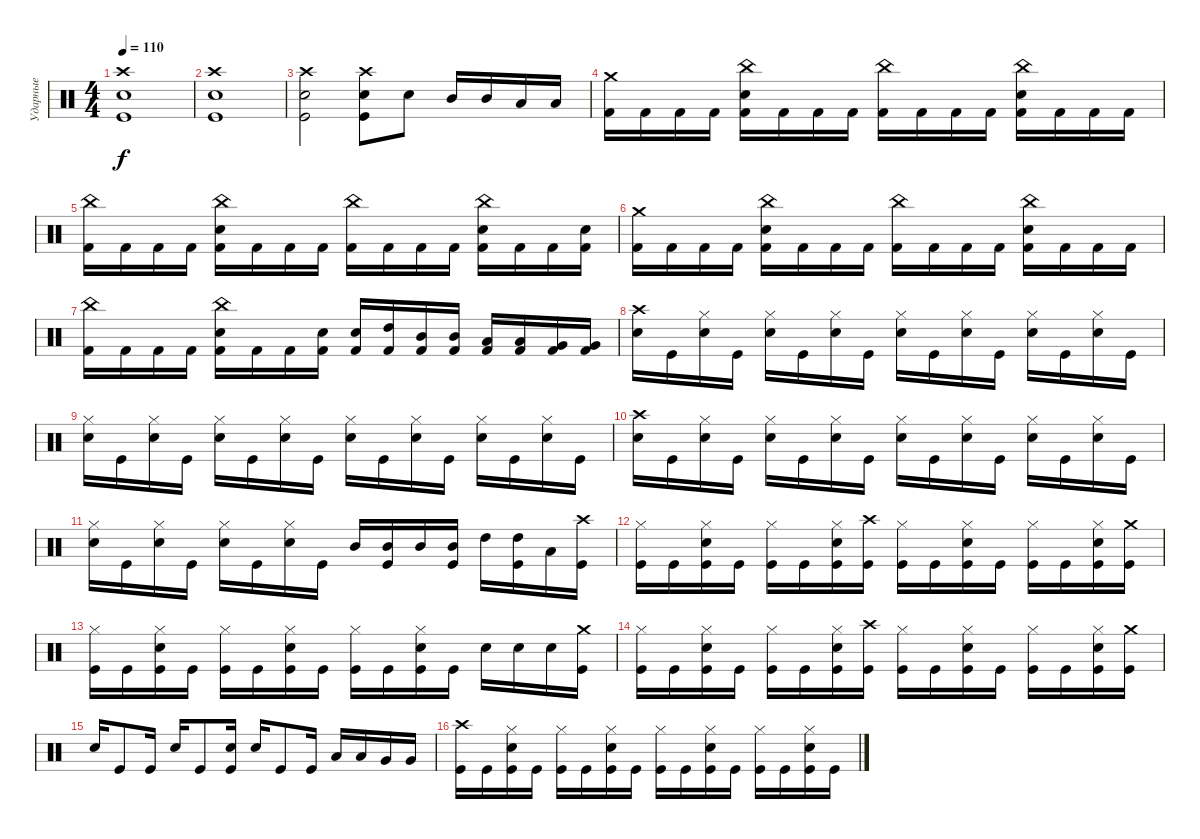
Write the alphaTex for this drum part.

\track ("Ударные" "Ударные") {instrument percussion}
\staff {score}
\articulation defaults
\ts (4 4)
\tempo 110
\clef neutral
\ks c
("Crash high (hit)" "Electric Snare (hit)" "Kick (hit)").1{dy f} |
("Crash high (hit)" "Electric Snare (hit)" "Kick (hit)").1 |
("Crash high (hit)" "Electric Snare (hit)" "Kick (hit)").2 ("Crash high (hit)" "Electric Snare (hit)" "Kick (hit)").8 "Electric Snare (hit)".8 "Mid Tom (hit)".16 "Mid Tom (hit)".16 "Low Tom (hit)".16 "Low Tom (hit)".16 |
("Crash medium (hit)" "Kick (hit) 2").16 "Kick (hit) 2".16 "Kick (hit) 2".16 "Kick (hit) 2".16 ("China (hit)" "Electric Snare (hit)" "Kick (hit) 2").16 "Kick (hit) 2".16 "Kick (hit) 2".16 "Kick (hit) 2".16 ("China (hit)" "Kick (hit) 2").16 "Kick (hit) 2".16 "Kick (hit) 2".16 "Kick (hit) 2".16 ("China (hit)" "Electric Snare (hit)" "Kick (hit) 2").16 "Kick (hit) 2".16 "Kick (hit) 2".16 "Kick (hit) 2".16 |
("China (hit)" "Kick (hit) 2").16 "Kick (hit) 2".16 "Kick (hit) 2".16 "Kick (hit) 2".16 ("China (hit)" "Electric Snare (hit)" "Kick (hit) 2").16 "Kick (hit) 2".16 "Kick (hit) 2".16 "Kick (hit) 2".16 ("China (hit)" "Kick (hit) 2").16 "Kick (hit) 2".16 "Kick (hit) 2".16 "Kick (hit) 2".16 ("China (hit)" "Electric Snare (hit)" "Kick (hit) 2").16 "Kick (hit) 2".16 "Kick (hit) 2".16 ("Electric Snare (hit)" "Kick (hit) 2").16 |
("Crash medium (hit)" "Kick (hit) 2").16 "Kick (hit) 2".16 "Kick (hit) 2".16 "Kick (hit) 2".16 ("China (hit)" "Electric Snare (hit)" "Kick (hit) 2").16 "Kick (hit) 2".16 "Kick (hit) 2".16 "Kick (hit) 2".16 ("China (hit)" "Kick (hit) 2").16 "Kick (hit) 2".16 "Kick (hit) 2".16 "Kick (hit) 2".16 ("China (hit)" "Electric Snare (hit)" "Kick (hit) 2").16 "Kick (hit) 2".16 "Kick (hit) 2".16 "Kick (hit) 2".16 |
("China (hit)" "Kick (hit) 2").16 "Kick (hit) 2".16 "Kick (hit) 2".16 "Kick (hit) 2".16 ("China (hit)" "Electric Snare (hit)" "Kick (hit) 2").16 "Kick (hit) 2".16 "Kick (hit) 2".16 ("Electric Snare (hit)" "Kick (hit) 2").16 ("Electric Snare (hit)" "Kick (hit) 2").16 ("High Tom (hit)" "Kick (hit) 2").16 ("Mid Tom (hit)" "Kick (hit) 2").16 ("Mid Tom (hit)" "Kick (hit) 2").16 ("Low Tom (hit)" "Kick (hit) 2").16 ("Low Tom (hit)" "Kick (hit) 2").16 ("Very Low Tom (hit)" "Kick (hit) 2").16 ("Very Low Tom (hit)" "Kick (hit) 2").16 |
("Crash high (hit)" "Electric Snare (hit)").16 "Kick (hit)".16 ("Hi-Hat (closed)" "Electric Snare (hit)").16 "Kick (hit)".16 ("Hi-Hat (closed)" "Electric Snare (hit)").16 "Kick (hit)".16 ("Hi-Hat (closed)" "Electric Snare (hit)").16 "Kick (hit)".16 ("Hi-Hat (closed)" "Electric Snare (hit)").16 "Kick (hit)".16 ("Hi-Hat (closed)" "Electric Snare (hit)").16 "Kick (hit)".16 ("Hi-Hat (closed)" "Electric Snare (hit)").16 "Kick (hit)".16 ("Hi-Hat (closed)" "Electric Snare (hit)").16 "Kick (hit)".16 |
("Hi-Hat (closed)" "Electric Snare (hit)").16 "Kick (hit)".16 ("Hi-Hat (closed)" "Electric Snare (hit)").16 "Kick (hit)".16 ("Hi-Hat (closed)" "Electric Snare (hit)").16 "Kick (hit)".16 ("Hi-Hat (closed)" "Electric Snare (hit)").16 "Kick (hit)".16 ("Hi-Hat (closed)" "Electric Snare (hit)").16 "Kick (hit)".16 ("Hi-Hat (closed)" "Electric Snare (hit)").16 "Kick (hit)".16 ("Hi-Hat (closed)" "Electric Snare (hit)").16 "Kick (hit)".16 ("Hi-Hat (closed)" "Electric Snare (hit)").16 "Kick (hit)".16 |
("Crash high (hit)" "Electric Snare (hit)").16 "Kick (hit)".16 ("Hi-Hat (closed)" "Electric Snare (hit)").16 "Kick (hit)".16 ("Hi-Hat (closed)" "Electric Snare (hit)").16 "Kick (hit)".16 ("Hi-Hat (closed)" "Electric Snare (hit)").16 "Kick (hit)".16 ("Hi-Hat (closed)" "Electric Snare (hit)").16 "Kick (hit)".16 ("Hi-Hat (closed)" "Electric Snare (hit)").16 "Kick (hit)".16 ("Hi-Hat (closed)" "Electric Snare (hit)").16 "Kick (hit)".16 ("Hi-Hat (closed)" "Electric Snare (hit)").16 "Kick (hit)".16 |
("Hi-Hat (closed)" "Electric Snare (hit)").16 "Kick (hit)".16 ("Hi-Hat (closed)" "Electric Snare (hit)").16 "Kick (hit)".16 ("Hi-Hat (closed)" "Electric Snare (hit)").16 "Kick (hit)".16 ("Hi-Hat (closed)" "Electric Snare (hit)").16 "Kick (hit)".16 "Mid Tom (hit)".16 ("Mid Tom (hit)" "Kick (hit)").16 "Mid Tom (hit)".16 ("Mid Tom (hit)" "Kick (hit)").16 "High Tom (hit)".16 ("High Tom (hit)" "Kick (hit)").16 "Low Tom (hit)".16 ("Crash high (hit)" "Kick (hit)").16 |
("Hi-Hat (closed)" "Kick (hit)").16 "Kick (hit)".16 ("Hi-Hat (closed)" "Electric Snare (hit)" "Kick (hit)").16 "Kick (hit)".16 ("Hi-Hat (closed)" "Kick (hit)").16 "Kick (hit)".16 ("Hi-Hat (closed)" "Electric Snare (hit)" "Kick (hit)").16 ("Crash high (hit)" "Kick (hit)").16 ("Hi-Hat (closed)" "Kick (hit)").16 "Kick (hit)".16 ("Hi-Hat (closed)" "Electric Snare (hit)" "Kick (hit)").16 "Kick (hit)".16 ("Hi-Hat (closed)" "Kick (hit)").16 "Kick (hit)".16 ("Hi-Hat (closed)" "Electric Snare (hit)" "Kick (hit)").16 ("Crash medium (hit)" "Kick (hit)").16 |
("Hi-Hat (closed)" "Kick (hit)").16 "Kick (hit)".16 ("Hi-Hat (closed)" "Electric Snare (hit)" "Kick (hit)").16 "Kick (hit)".16 ("Hi-Hat (closed)" "Kick (hit)").16 "Kick (hit)".16 ("Hi-Hat (closed)" "Electric Snare (hit)" "Kick (hit)").16 "Kick (hit)".16 ("Hi-Hat (closed)" "Kick (hit)").16 "Kick (hit)".16 ("Hi-Hat (closed)" "Electric Snare (hit)" "Kick (hit)").16 "Kick (hit)".16 "Electric Snare (hit)".16 "Electric Snare (hit)".16 "Electric Snare (hit)".16 ("Crash medium (hit)" "Kick (hit)").16 |
("Hi-Hat (closed)" "Kick (hit)").16 "Kick (hit)".16 ("Hi-Hat (closed)" "Electric Snare (hit)" "Kick (hit)").16 "Kick (hit)".16 ("Hi-Hat (closed)" "Kick (hit)").16 "Kick (hit)".16 ("Hi-Hat (closed)" "Electric Snare (hit)" "Kick (hit)").16 ("Crash high (hit)" "Kick (hit)").16 ("Hi-Hat (closed)" "Kick (hit)").16 "Kick (hit)".16 ("Hi-Hat (closed)" "Electric Snare (hit)" "Kick (hit)").16 "Kick (hit)".16 ("Hi-Hat (closed)" "Kick (hit)").16 "Kick (hit)".16 ("Hi-Hat (closed)" "Electric Snare (hit)" "Kick (hit)").16 ("Crash medium (hit)" "Kick (hit)").16 |
"Electric Snare (hit)".16 "Kick (hit)".8 "Kick (hit)".16 "Electric Snare (hit)".16 "Kick (hit)".8 ("Electric Snare (hit)" "Kick (hit)").16 "Electric Snare (hit)".16 "Kick (hit)".8 "Kick (hit)".16 "Low Tom (hit)".16 "Low Tom (hit)".16 "Very Low Tom (hit)".16 "Very Low Tom (hit)".16 |
("Crash high (hit)" "Kick (hit)").16 "Kick (hit)".16 ("Hi-Hat (closed)" "Electric Snare (hit)" "Kick (hit)").16 "Kick (hit)".16 ("Hi-Hat (closed)" "Kick (hit)").16 "Kick (hit)".16 ("Hi-Hat (closed)" "Electric Snare (hit)" "Kick (hit)").16 "Kick (hit)".16 ("Hi-Hat (closed)" "Kick (hit)").16 "Kick (hit)".16 ("Hi-Hat (closed)" "Electric Snare (hit)" "Kick (hit)").16 "Kick (hit)".16 ("Hi-Hat (closed)" "Kick (hit)").16 "Kick (hit)".16 ("Hi-Hat (closed)" "Electric Snare (hit)" "Kick (hit)").16 "Kick (hit)".16
